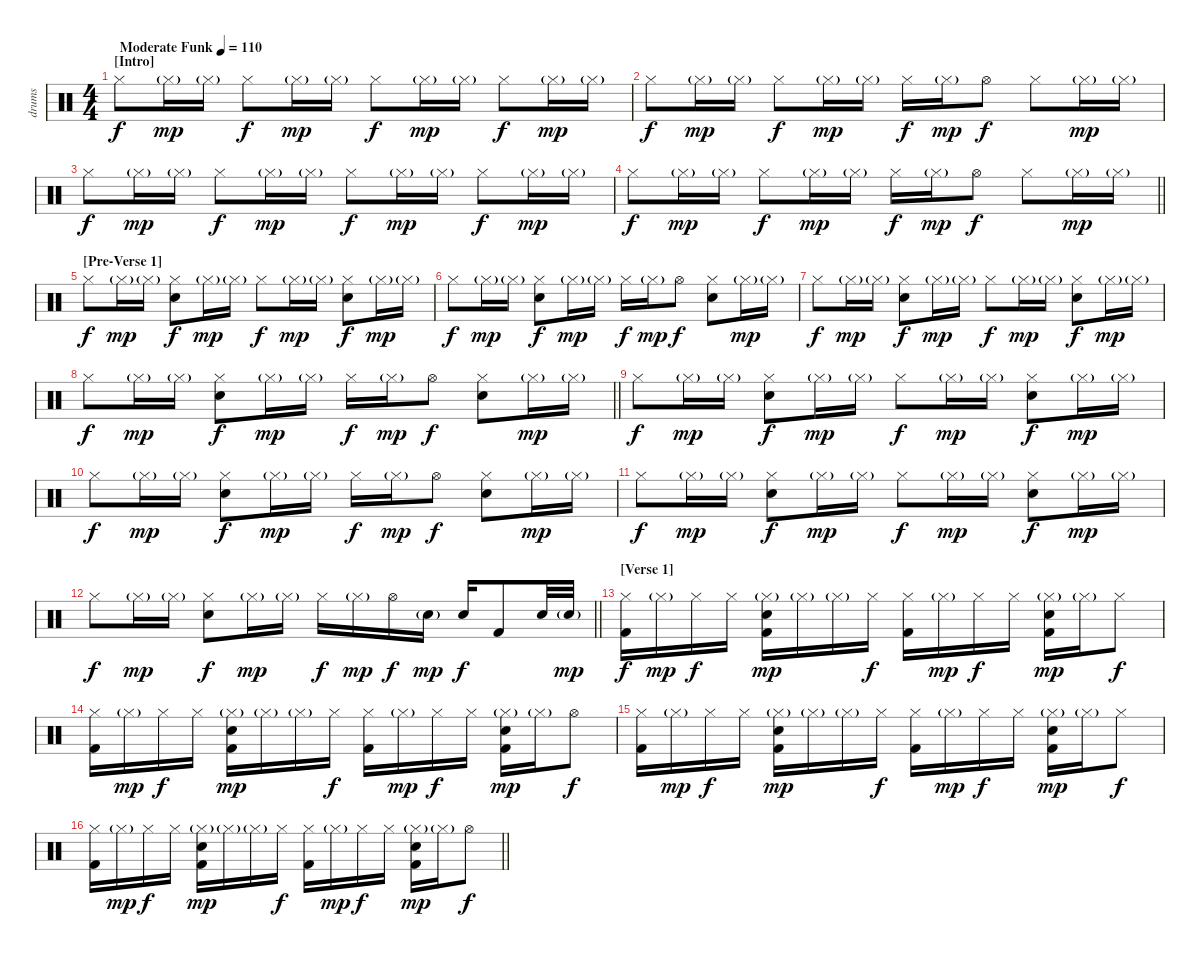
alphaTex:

\track ("drums" "drums") {instrument percussion}
\staff {score}
\articulation defaults
\ts (4 4)
\section ("" "[Intro]")
\tempo (110 "Moderate Funk")
\clef neutral
\ks c "Hi-Hat (closed)".8{dy f} "Hi-Hat (closed)"{g}.16{dy mp} "Hi-Hat (closed)"{g}.16 "Hi-Hat (closed)".8{dy f} "Hi-Hat (closed)"{g}.16{dy mp} "Hi-Hat (closed)"{g}.16 "Hi-Hat (closed)".8{dy f} "Hi-Hat (closed)"{g}.16{dy mp} "Hi-Hat (closed)"{g}.16 "Hi-Hat (closed)".8{dy f} "Hi-Hat (closed)"{g}.16{dy mp} "Hi-Hat (closed)"{g}.16
|
"Hi-Hat (closed)".8{dy f} "Hi-Hat (closed)"{g}.16{dy mp} "Hi-Hat (closed)"{g}.16 "Hi-Hat (closed)".8{dy f} "Hi-Hat (closed)"{g}.16{dy mp} "Hi-Hat (closed)"{g}.16 "Hi-Hat (closed)".16{dy f} "Hi-Hat (closed)"{g}.16{dy mp} "Hi-Hat (open)".8{dy f} "Hi-Hat (closed)".8 "Hi-Hat (closed)"{g}.16{dy mp} "Hi-Hat (closed)"{g}.16 |
"Hi-Hat (closed)".8{dy f} "Hi-Hat (closed)"{g}.16{dy mp} "Hi-Hat (closed)"{g}.16 "Hi-Hat (closed)".8{dy f} "Hi-Hat (closed)"{g}.16{dy mp} "Hi-Hat (closed)"{g}.16 "Hi-Hat (closed)".8{dy f} "Hi-Hat (closed)"{g}.16{dy mp} "Hi-Hat (closed)"{g}.16 "Hi-Hat (closed)".8{dy f} "Hi-Hat (closed)"{g}.16{dy mp} "Hi-Hat (closed)"{g}.16 |
\barLineRight lightlight "Hi-Hat (closed)".8{dy f} "Hi-Hat (closed)"{g}.16{dy mp} "Hi-Hat (closed)"{g}.16 "Hi-Hat (closed)".8{dy f} "Hi-Hat (closed)"{g}.16{dy mp} "Hi-Hat (closed)"{g}.16 "Hi-Hat (closed)".16{dy f} "Hi-Hat (closed)"{g}.16{dy mp} "Hi-Hat (open)".8{dy f} "Hi-Hat (closed)".8 "Hi-Hat (closed)"{g}.16{dy mp} "Hi-Hat (closed)"{g}.16
|
\section ("" "[Pre-Verse 1]")
"Hi-Hat (closed)".8{dy f} "Hi-Hat (closed)"{g}.16{dy mp} "Hi-Hat (closed)"{g}.16 ("Hi-Hat (closed)" "Hand Clap (hit)").8{dy f} "Hi-Hat (closed)"{g}.16{dy mp} "Hi-Hat (closed)"{g}.16 "Hi-Hat (closed)".8{dy f} "Hi-Hat (closed)"{g}.16{dy mp} "Hi-Hat (closed)"{g}.16 ("Hi-Hat (closed)" "Hand Clap (hit)").8{dy f} "Hi-Hat (closed)"{g}.16{dy mp} "Hi-Hat (closed)"{g}.16 |
"Hi-Hat (closed)".8{dy f} "Hi-Hat (closed)"{g}.16{dy mp} "Hi-Hat (closed)"{g}.16 ("Hi-Hat (closed)" "Hand Clap (hit)").8{dy f} "Hi-Hat (closed)"{g}.16{dy mp} "Hi-Hat (closed)"{g}.16 "Hi-Hat (closed)".16{dy f} "Hi-Hat (closed)"{g}.16{dy mp} "Hi-Hat (open)".8{dy f} ("Hi-Hat (closed)" "Hand Clap (hit)").8 "Hi-Hat (closed)"{g}.16{dy mp} "Hi-Hat (closed)"{g}.16 |
"Hi-Hat (closed)".8{dy f} "Hi-Hat (closed)"{g}.16{dy mp} "Hi-Hat (closed)"{g}.16 ("Hi-Hat (closed)" "Hand Clap (hit)").8{dy f} "Hi-Hat (closed)"{g}.16{dy mp} "Hi-Hat (closed)"{g}.16 "Hi-Hat (closed)".8{dy f} "Hi-Hat (closed)"{g}.16{dy mp} "Hi-Hat (closed)"{g}.16 ("Hi-Hat (closed)" "Hand Clap (hit)").8{dy f} "Hi-Hat (closed)"{g}.16{dy mp} "Hi-Hat (closed)"{g}.16 |
\barLineRight lightlight "Hi-Hat (closed)".8{dy f} "Hi-Hat (closed)"{g}.16{dy mp} "Hi-Hat (closed)"{g}.16
("Hi-Hat (closed)" "Hand Clap (hit)").8{dy f} "Hi-Hat (closed)"{g}.16{dy mp} "Hi-Hat (closed)"{g}.16 "Hi-Hat (closed)".16{dy f} "Hi-Hat (closed)"{g}.16{dy mp} "Hi-Hat (open)".8{dy f} ("Hi-Hat (closed)" "Hand Clap (hit)").8 "Hi-Hat (closed)"{g}.16{dy mp} "Hi-Hat (closed)"{g}.16 |
"Hi-Hat (closed)".8{dy f} "Hi-Hat (closed)"{g}.16{dy mp} "Hi-Hat (closed)"{g}.16 ("Hi-Hat (closed)" "Hand Clap (hit)").8{dy f} "Hi-Hat (closed)"{g}.16{dy mp} "Hi-Hat (closed)"{g}.16 "Hi-Hat (closed)".8{dy f} "Hi-Hat (closed)"{g}.16{dy mp} "Hi-Hat (closed)"{g}.16 ("Hi-Hat (closed)" "Hand Clap (hit)").8{dy f} "Hi-Hat (closed)"{g}.16{dy mp} "Hi-Hat (closed)"{g}.16 |
"Hi-Hat (closed)".8{dy f} "Hi-Hat (closed)"{g}.16{dy mp} "Hi-Hat (closed)"{g}.16 ("Hi-Hat (closed)" "Hand Clap (hit)").8{dy f} "Hi-Hat (closed)"{g}.16{dy mp} "Hi-Hat (closed)"{g}.16 "Hi-Hat (closed)".16{dy f} "Hi-Hat (closed)"{g}.16{dy mp} "Hi-Hat (open)".8{dy f} ("Hi-Hat (closed)" "Hand Clap (hit)").8 "Hi-Hat (closed)"{g}.16{dy mp} "Hi-Hat (closed)"{g}.16 |
"Hi-Hat (closed)".8{dy f} "Hi-Hat (closed)"{g}.16{dy mp} "Hi-Hat (closed)"{g}.16 ("Hi-Hat (closed)" "Hand Clap (hit)").8{dy f} "Hi-Hat (closed)"{g}.16{dy mp} "Hi-Hat (closed)"{g}.16 "Hi-Hat (closed)".8{dy f} "Hi-Hat (closed)"{g}.16{dy mp} "Hi-Hat (closed)"{g}.16 ("Hi-Hat (closed)" "Hand Clap (hit)").8{dy f} "Hi-Hat (closed)"{g}.16{dy mp} "Hi-Hat (closed)"{g}.16 |
\barLineRight lightlight "Hi-Hat (closed)".8{dy f} "Hi-Hat (closed)"{g}.16{dy mp} "Hi-Hat (closed)"{g}.16
("Hi-Hat (closed)" "Hand Clap (hit)").8{dy f} "Hi-Hat (closed)"{g}.16{dy mp} "Hi-Hat (closed)"{g}.16 "Hi-Hat (closed)".16{dy f} "Hi-Hat (closed)"{g}.16{dy mp} "Hi-Hat (open)".16{dy f} "Electric Snare (hit)"{g}.16{dy mp} "Electric Snare (hit)".16{dy f} "Kick (hit) 2".8 "Electric Snare (hit)".32 "Electric Snare (hit)"{g}.32{dy mp} |
\section ("" "[Verse 1]")
("Hi-Hat (closed)" "Kick (hit) 2").16{dy f} "Hi-Hat (closed)"{g}.16{dy mp} "Hi-Hat (closed)".16{dy f} "Hi-Hat (closed)".16 ("Hi-Hat (closed)"{g} "Electric Snare (hit)" "Kick (hit) 2").16{dy mp} "Hi-Hat (closed)"{g}.16 "Hi-Hat (closed)"{g}.16 "Hi-Hat (closed)".16{dy f} ("Hi-Hat (closed)" "Kick (hit) 2").16 "Hi-Hat (closed)"{g}.16{dy mp} "Hi-Hat (closed)".16{dy f} "Hi-Hat (closed)".16 ("Hi-Hat (closed)"{g} "Electric Snare (hit)" "Kick (hit) 2").16{dy mp} "Hi-Hat (closed)"{g}.16 "Hi-Hat (closed)".8{dy f} |
("Hi-Hat (closed)" "Kick (hit) 2").16 "Hi-Hat (closed)"{g}.16{dy mp} "Hi-Hat (closed)".16{dy f} "Hi-Hat (closed)".16 ("Hi-Hat (closed)"{g} "Electric Snare (hit)" "Kick (hit) 2").16{dy mp} "Hi-Hat (closed)"{g}.16 "Hi-Hat (closed)"{g}.16 "Hi-Hat (closed)".16{dy f} ("Hi-Hat (closed)" "Kick (hit) 2").16 "Hi-Hat (closed)"{g}.16{dy mp} "Hi-Hat (closed)".16{dy f} "Hi-Hat (closed)".16 ("Hi-Hat (closed)"{g} "Electric Snare (hit)" "Kick (hit) 2").16{dy mp} "Hi-Hat (closed)"{g}.16 "Hi-Hat (open)".8{dy f} |
("Hi-Hat (closed)" "Kick (hit) 2").16 "Hi-Hat (closed)"{g}.16{dy mp} "Hi-Hat (closed)".16{dy f} "Hi-Hat (closed)".16 ("Hi-Hat (closed)"{g} "Electric Snare (hit)" "Kick (hit) 2").16{dy mp} "Hi-Hat (closed)"{g}.16 "Hi-Hat (closed)"{g}.16 "Hi-Hat (closed)".16{dy f} ("Hi-Hat (closed)" "Kick (hit) 2").16 "Hi-Hat (closed)"{g}.16{dy mp} "Hi-Hat (closed)".16{dy f} "Hi-Hat (closed)".16 ("Hi-Hat (closed)"{g} "Electric Snare (hit)" "Kick (hit) 2").16{dy mp} "Hi-Hat (closed)"{g}.16 "Hi-Hat (closed)".8{dy f} |
\barLineRight lightlight
("Hi-Hat (closed)" "Kick (hit) 2").16 "Hi-Hat (closed)"{g}.16{dy mp} "Hi-Hat (closed)".16{dy f} "Hi-Hat (closed)".16 ("Hi-Hat (closed)"{g} "Electric Snare (hit)" "Kick (hit) 2").16{dy mp} "Hi-Hat (closed)"{g}.16 "Hi-Hat (closed)"{g}.16 "Hi-Hat (closed)".16{dy f} ("Hi-Hat (closed)" "Kick (hit) 2").16 "Hi-Hat (closed)"{g}.16{dy mp} "Hi-Hat (closed)".16{dy f} "Hi-Hat (closed)".16 ("Hi-Hat (closed)"{g} "Electric Snare (hit)" "Kick (hit) 2").16{dy mp} "Hi-Hat (closed)"{g}.16 "Hi-Hat (open)".8{dy f}
